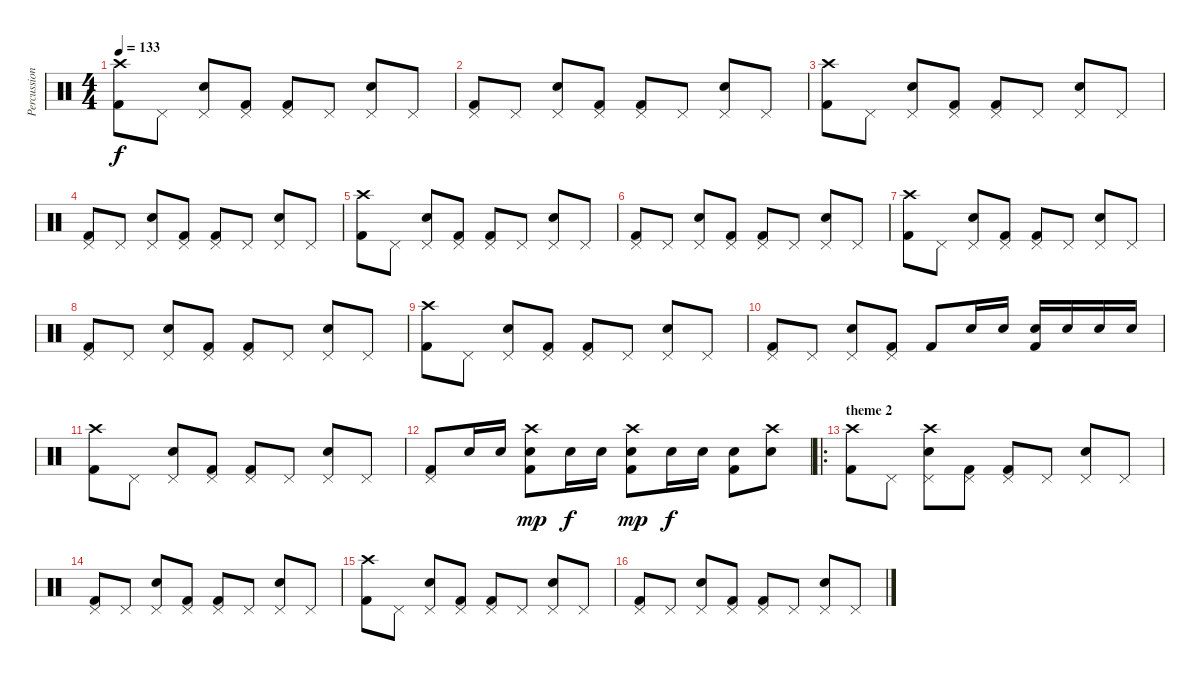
\track ("Percussions" "Percussion") {instrument percussion}
\staff {score}
\articulation defaults
\ts (4 4)
\tempo 133
\clef neutral
\ks c
("Crash high (hit)" "Kick (hit) 2").8{dy f} "Pedal Hi-Hat (hit)".8 ("Pedal Hi-Hat (hit)" "Snare (hit) 2").8 ("Pedal Hi-Hat (hit)" "Kick (hit) 2").8 ("Pedal Hi-Hat (hit)" "Kick (hit) 2").8 "Pedal Hi-Hat (hit)".8 ("Pedal Hi-Hat (hit)" "Snare (hit) 2").8 "Pedal Hi-Hat (hit)".8 |
("Pedal Hi-Hat (hit)" "Kick (hit) 2").8 "Pedal Hi-Hat (hit)".8 ("Pedal Hi-Hat (hit)" "Snare (hit) 2").8 ("Pedal Hi-Hat (hit)" "Kick (hit) 2").8 ("Pedal Hi-Hat (hit)" "Kick (hit) 2").8 "Pedal Hi-Hat (hit)".8 ("Pedal Hi-Hat (hit)" "Snare (hit) 2").8 "Pedal Hi-Hat (hit)".8 |
("Crash high (hit)" "Kick (hit) 2").8 "Pedal Hi-Hat (hit)".8 ("Pedal Hi-Hat (hit)" "Snare (hit) 2").8 ("Pedal Hi-Hat (hit)" "Kick (hit) 2").8 ("Pedal Hi-Hat (hit)" "Kick (hit) 2").8 "Pedal Hi-Hat (hit)".8 ("Pedal Hi-Hat (hit)" "Snare (hit) 2").8 "Pedal Hi-Hat (hit)".8 |
("Pedal Hi-Hat (hit)" "Kick (hit) 2").8 "Pedal Hi-Hat (hit)".8 ("Pedal Hi-Hat (hit)" "Snare (hit) 2").8 ("Pedal Hi-Hat (hit)" "Kick (hit) 2").8 ("Pedal Hi-Hat (hit)" "Kick (hit) 2").8 "Pedal Hi-Hat (hit)".8 ("Pedal Hi-Hat (hit)" "Snare (hit) 2").8 "Pedal Hi-Hat (hit)".8 |
("Crash high (hit)" "Kick (hit) 2").8 "Pedal Hi-Hat (hit)".8 ("Pedal Hi-Hat (hit)" "Snare (hit) 2").8 ("Pedal Hi-Hat (hit)" "Kick (hit) 2").8 ("Pedal Hi-Hat (hit)" "Kick (hit) 2").8 "Pedal Hi-Hat (hit)".8 ("Pedal Hi-Hat (hit)" "Snare (hit) 2").8 "Pedal Hi-Hat (hit)".8 |
("Pedal Hi-Hat (hit)" "Kick (hit) 2").8 "Pedal Hi-Hat (hit)".8 ("Pedal Hi-Hat (hit)" "Snare (hit) 2").8 ("Pedal Hi-Hat (hit)" "Kick (hit) 2").8 ("Pedal Hi-Hat (hit)" "Kick (hit) 2").8 "Pedal Hi-Hat (hit)".8 ("Pedal Hi-Hat (hit)" "Snare (hit) 2").8 "Pedal Hi-Hat (hit)".8 |
("Crash high (hit)" "Kick (hit) 2").8 "Pedal Hi-Hat (hit)".8 ("Pedal Hi-Hat (hit)" "Snare (hit) 2").8 ("Pedal Hi-Hat (hit)" "Kick (hit) 2").8 ("Pedal Hi-Hat (hit)" "Kick (hit) 2").8 "Pedal Hi-Hat (hit)".8 ("Pedal Hi-Hat (hit)" "Snare (hit) 2").8 "Pedal Hi-Hat (hit)".8 |
("Pedal Hi-Hat (hit)" "Kick (hit) 2").8 "Pedal Hi-Hat (hit)".8 ("Pedal Hi-Hat (hit)" "Snare (hit) 2").8 ("Pedal Hi-Hat (hit)" "Kick (hit) 2").8 ("Pedal Hi-Hat (hit)" "Kick (hit) 2").8 "Pedal Hi-Hat (hit)".8 ("Pedal Hi-Hat (hit)" "Snare (hit) 2").8 "Pedal Hi-Hat (hit)".8 |
("Crash high (hit)" "Kick (hit) 2").8 "Pedal Hi-Hat (hit)".8 ("Pedal Hi-Hat (hit)" "Snare (hit) 2").8 ("Pedal Hi-Hat (hit)" "Kick (hit) 2").8 ("Pedal Hi-Hat (hit)" "Kick (hit) 2").8 "Pedal Hi-Hat (hit)".8 ("Pedal Hi-Hat (hit)" "Snare (hit) 2").8 "Pedal Hi-Hat (hit)".8 |
("Pedal Hi-Hat (hit)" "Kick (hit) 2").8 "Pedal Hi-Hat (hit)".8 ("Pedal Hi-Hat (hit)" "Snare (hit) 2").8 ("Pedal Hi-Hat (hit)" "Kick (hit) 2").8 "Kick (hit) 2".8 "Snare (hit) 2".16 "Snare (hit) 2".16 ("Snare (hit) 2" "Kick (hit) 2").16 "Snare (hit) 2".16 "Snare (hit) 2".16 "Snare (hit) 2".16 |
("Crash high (hit)" "Kick (hit) 2").8 "Pedal Hi-Hat (hit)".8 ("Pedal Hi-Hat (hit)" "Snare (hit) 2").8 ("Pedal Hi-Hat (hit)" "Kick (hit) 2").8 ("Pedal Hi-Hat (hit)" "Kick (hit) 2").8 "Pedal Hi-Hat (hit)".8 ("Pedal Hi-Hat (hit)" "Snare (hit) 2").8 "Pedal Hi-Hat (hit)".8 |
("Pedal Hi-Hat (hit)" "Kick (hit) 2").8 "Snare (hit) 2".16 "Snare (hit) 2".16 ("Crash high (hit)" "Electric Snare (hit)" "Kick (hit) 2").8{dy mp} "Snare (hit) 2".16{dy f} "Snare (hit) 2".16 ("Crash high (hit)" "Electric Snare (hit)" "Kick (hit) 2").8{dy mp} "Snare (hit) 2".16{dy f} "Snare (hit) 2".16 ("Snare (hit) 2" "Kick (hit) 2").8 ("Crash high (hit)" "Electric Snare (hit)").8 |
\ro
\section ("" "theme 2")
("Crash high (hit)" "Kick (hit) 2").8 "Pedal Hi-Hat (hit)".8 ("Pedal Hi-Hat (hit)" "Crash high (hit)" "Snare (hit) 2").8 ("Pedal Hi-Hat (hit)" "Kick (hit) 2").8 ("Pedal Hi-Hat (hit)" "Kick (hit) 2").8 "Pedal Hi-Hat (hit)".8 ("Pedal Hi-Hat (hit)" "Snare (hit) 2").8 "Pedal Hi-Hat (hit)".8 |
("Pedal Hi-Hat (hit)" "Kick (hit) 2").8 "Pedal Hi-Hat (hit)".8 ("Pedal Hi-Hat (hit)" "Snare (hit) 2").8 ("Pedal Hi-Hat (hit)" "Kick (hit) 2").8 ("Pedal Hi-Hat (hit)" "Kick (hit) 2").8 "Pedal Hi-Hat (hit)".8 ("Pedal Hi-Hat (hit)" "Snare (hit) 2").8 "Pedal Hi-Hat (hit)".8 |
("Crash high (hit)" "Kick (hit) 2").8 "Pedal Hi-Hat (hit)".8 ("Pedal Hi-Hat (hit)" "Snare (hit) 2").8 ("Pedal Hi-Hat (hit)" "Kick (hit) 2").8 ("Pedal Hi-Hat (hit)" "Kick (hit) 2").8 "Pedal Hi-Hat (hit)".8 ("Pedal Hi-Hat (hit)" "Snare (hit) 2").8 "Pedal Hi-Hat (hit)".8 |
("Pedal Hi-Hat (hit)" "Kick (hit) 2").8 "Pedal Hi-Hat (hit)".8 ("Pedal Hi-Hat (hit)" "Snare (hit) 2").8 ("Pedal Hi-Hat (hit)" "Kick (hit) 2").8 ("Pedal Hi-Hat (hit)" "Kick (hit) 2").8 "Pedal Hi-Hat (hit)".8 ("Pedal Hi-Hat (hit)" "Snare (hit) 2").8 "Pedal Hi-Hat (hit)".8
